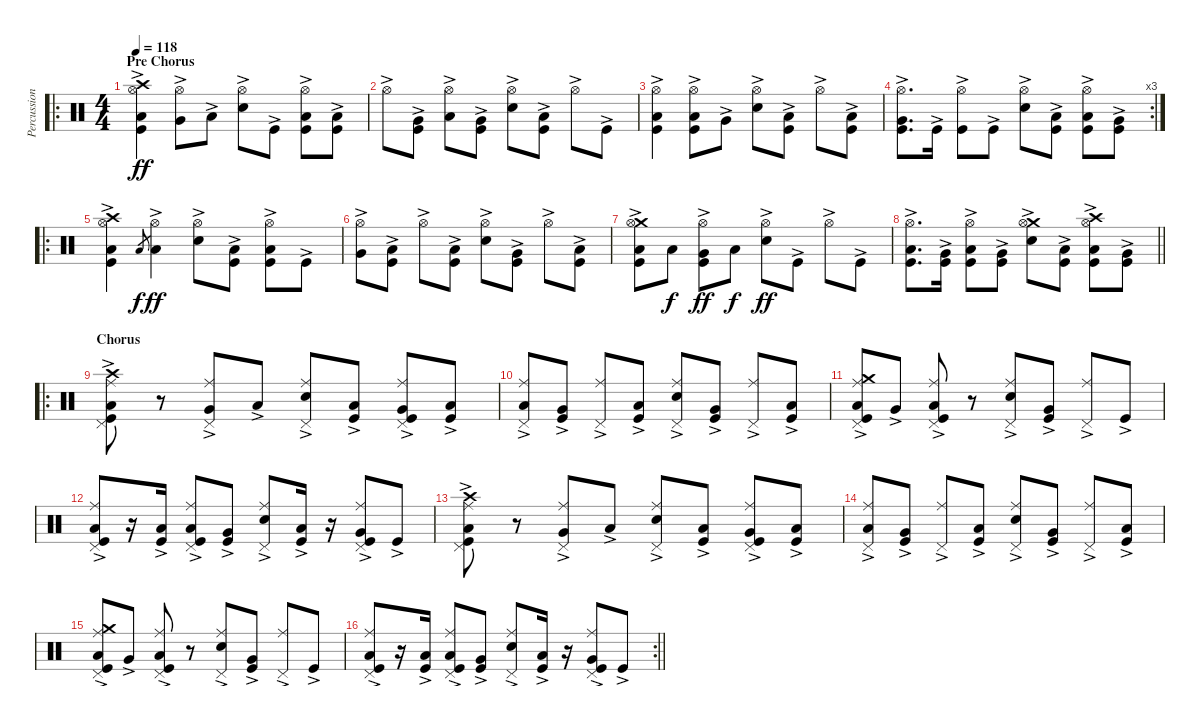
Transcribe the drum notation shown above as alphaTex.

\track ("Percussion" "Percussion") {instrument percussion}
\staff {score}
\articulation defaults
\ro
\ts (4 4)
\section ("" "Pre Chorus")
\tempo 118
\clef neutral
\ks c
("Crash high (hit)"{ac} "Hi-Hat (open)"{ac} "Low Floor Tom (hit)"{ac} "Kick (hit)"{ac}).4{dy ff} ("Hi-Hat (open)"{ac} "Very Low Tom (hit)"{ac}).8 "Low Floor Tom (hit)"{ac}.8 ("Hi-Hat (open)"{ac} "Electric Snare (hit)"{ac}).8 "Kick (hit)"{ac}.8 ("Hi-Hat (open)"{ac} "Low Floor Tom (hit)"{ac} "Kick (hit)"{ac}).8 ("Low Floor Tom (hit)"{ac} "Kick (hit)"{ac}).8 |
"Hi-Hat (open)"{ac}.8 ("Very Low Tom (hit)"{ac} "Kick (hit)"{ac}).8 ("Hi-Hat (open)"{ac} "Low Floor Tom (hit)"{ac}).8 ("Very Low Tom (hit)"{ac} "Kick (hit)"{ac}).8 ("Hi-Hat (open)"{ac} "Electric Snare (hit)"{ac}).8 ("Low Floor Tom (hit)"{ac} "Kick (hit)"{ac}).8 "Hi-Hat (open)"{ac}.8 "Kick (hit)"{ac}.8 |
("Hi-Hat (open)"{ac} "Low Floor Tom (hit)"{ac} "Kick (hit)"{ac}).4 ("Hi-Hat (open)"{ac} "Low Floor Tom (hit)"{ac} "Kick (hit)"{ac}).8 "Very Low Tom (hit)"{ac}.8 ("Hi-Hat (open)"{ac} "Electric Snare (hit)"{ac}).8 ("Low Floor Tom (hit)"{ac} "Kick (hit)"{ac}).8 "Hi-Hat (open)"{ac}.8 ("Low Floor Tom (hit)"{ac} "Kick (hit)"{ac}).8 |
\rc 3
("Hi-Hat (open)"{ac} "Very Low Tom (hit)" "Kick (hit)"{ac}).8{d} "Kick (hit)"{ac}.16 ("Hi-Hat (open)"{ac} "Kick (hit)"{ac}).8 "Kick (hit)"{ac}.8 ("Hi-Hat (open)"{ac} "Electric Snare (hit)"{ac}).8 ("Low Floor Tom (hit)"{ac} "Kick (hit)"{ac}).8 ("Hi-Hat (open)"{ac} "Low Floor Tom (hit)"{ac} "Kick (hit)"{ac}).8 ("Very Low Tom (hit)"{ac} "Kick (hit)"{ac}).8 |
\ro
("Crash high (hit)"{ac} "Hi-Hat (open)"{ac} "Low Floor Tom (hit)" "Kick (hit)"{ac}).4 "Low Floor Tom (hit)".8{gr dy f} ("Hi-Hat (open)"{ac} "Low Floor Tom (hit)").4{dy ff} ("Hi-Hat (open)"{ac} "Electric Snare (hit)"{ac}).8 ("Low Floor Tom (hit)" "Kick (hit)"{ac}).8 ("Hi-Hat (open)"{ac} "Low Floor Tom (hit)" "Kick (hit)"{ac}).8 "Kick (hit)"{ac}.8 |
("Hi-Hat (open)"{ac} "Very Low Tom (hit)").8 ("Low Floor Tom (hit)" "Kick (hit)"{ac}).8 "Hi-Hat (open)"{ac}.8 ("Low Floor Tom (hit)" "Kick (hit)"{ac}).8 ("Hi-Hat (open)"{ac} "Electric Snare (hit)"{ac}).8 ("Very Low Tom (hit)" "Kick (hit)"{ac}).8 "Hi-Hat (open)"{ac}.8 ("Low Floor Tom (hit)" "Kick (hit)"{ac}).8 |
("Crash medium (hit)"{ac} "Hi-Hat (open)"{ac} "Low Floor Tom (hit)" "Kick (hit)"{ac}).8 "Low Floor Tom (hit)".8{dy f} ("Hi-Hat (open)"{ac} "Very Low Tom (hit)" "Kick (hit)"{ac}).8{dy ff} "Low Floor Tom (hit)".8{dy f} ("Hi-Hat (open)"{ac} "Electric Snare (hit)"{ac}).8{dy ff} "Kick (hit)"{ac}.8 "Hi-Hat (open)"{ac}.8 "Kick (hit)"{ac}.8 |
\barLineRight lightlight
("Hi-Hat (open)"{ac} "Low Floor Tom (hit)" "Kick (hit)"{ac}).8{d} ("Very Low Tom (hit)" "Kick (hit)"{ac}).16 ("Hi-Hat (open)"{ac} "Low Floor Tom (hit)" "Kick (hit)"{ac}).8 ("Very Low Tom (hit)" "Kick (hit)"{ac}).8 ("Crash medium (hit)"{ac} "Hi-Hat (open)"{ac} "Electric Snare (hit)"{ac}).8 ("Low Floor Tom (hit)" "Kick (hit)"{ac}).8 ("Crash high (hit)"{ac} "Hi-Hat (open)"{ac} "Low Floor Tom (hit)" "Kick (hit)"{ac}).8 ("Very Low Tom (hit)" "Kick (hit)"{ac}).8 |
\ro
\section ("" "Chorus")
("Low Floor Tom (hit)"{ac} "Crash high (hit)"{ac} "Ride (middle)"{ac} "Pedal Hi-Hat (hit)"{ac} "Kick (hit)"{ac}).8 r.8 ("Ride (middle)"{ac} "Pedal Hi-Hat (hit)"{ac} "Very Low Tom (hit)"{ac}).8 "Low Floor Tom (hit)"{ac}.8 ("Pedal Hi-Hat (hit)"{ac} "Ride (middle)"{ac} "Electric Snare (hit)"{ac}).8 ("Low Floor Tom (hit)"{ac} "Kick (hit)"{ac}).8 ("Very Low Tom (hit)"{ac} "Ride (middle)"{ac} "Pedal Hi-Hat (hit)"{ac} "Kick (hit)"{ac}).8 ("Low Floor Tom (hit)"{ac} "Kick (hit)"{ac}).8 |
("Ride (middle)"{ac} "Pedal Hi-Hat (hit)"{ac} "Low Floor Tom (hit)"{ac}).8 ("Very Low Tom (hit)"{ac} "Kick (hit)"{ac}).8 ("Ride (middle)"{ac} "Pedal Hi-Hat (hit)"{ac}).8 ("Low Floor Tom (hit)"{ac} "Kick (hit)"{ac}).8 ("Pedal Hi-Hat (hit)"{ac} "Ride (middle)"{ac} "Electric Snare (hit)"{ac}).8 ("Very Low Tom (hit)"{ac} "Kick (hit)"{ac}).8 ("Ride (middle)"{ac} "Pedal Hi-Hat (hit)"{ac}).8 ("Low Floor Tom (hit)"{ac} "Kick (hit)"{ac}).8 |
("Low Floor Tom (hit)"{ac} "Crash medium (hit)"{ac} "Ride (middle)"{ac} "Pedal Hi-Hat (hit)"{ac} "Kick (hit)"{ac}).8 "Very Low Tom (hit)"{ac}.8 ("Low Floor Tom (hit)"{ac} "Ride (middle)"{ac} "Pedal Hi-Hat (hit)"{ac} "Kick (hit)"{ac}).8 r.8 ("Pedal Hi-Hat (hit)"{ac} "Ride (middle)"{ac} "Electric Snare (hit)"{ac}).8 ("Very Low Tom (hit)"{ac} "Kick (hit)"{ac}).8 ("Ride (middle)"{ac} "Pedal Hi-Hat (hit)"{ac}).8 "Kick (hit)"{ac}.8 |
("Low Floor Tom (hit)"{ac} "Ride (middle)"{ac} "Pedal Hi-Hat (hit)"{ac} "Kick (hit)"{ac}).8 r.16 ("Low Floor Tom (hit)"{ac} "Kick (hit)"{ac}).16 ("Low Floor Tom (hit)"{ac} "Ride (middle)"{ac} "Pedal Hi-Hat (hit)"{ac} "Kick (hit)"{ac}).8 ("Very Low Tom (hit)"{ac} "Kick (hit)"{ac}).8 ("Pedal Hi-Hat (hit)"{ac} "Ride (middle)"{ac} "Electric Snare (hit)"{ac}).8 ("Low Floor Tom (hit)"{ac} "Kick (hit)"{ac}).16 r.16 ("Very Low Tom (hit)"{ac} "Ride (middle)"{ac} "Pedal Hi-Hat (hit)"{ac} "Kick (hit)"{ac}).8 "Kick (hit)"{ac}.8 |
("Low Floor Tom (hit)"{ac} "Crash high (hit)"{ac} "Ride (middle)"{ac} "Pedal Hi-Hat (hit)"{ac} "Kick (hit)"{ac}).8 r.8 ("Ride (middle)"{ac} "Pedal Hi-Hat (hit)"{ac} "Very Low Tom (hit)"{ac}).8 "Low Floor Tom (hit)"{ac}.8 ("Pedal Hi-Hat (hit)"{ac} "Ride (middle)"{ac} "Electric Snare (hit)"{ac}).8 ("Low Floor Tom (hit)"{ac} "Kick (hit)"{ac}).8 ("Very Low Tom (hit)"{ac} "Ride (middle)"{ac} "Pedal Hi-Hat (hit)"{ac} "Kick (hit)"{ac}).8 ("Low Floor Tom (hit)"{ac} "Kick (hit)"{ac}).8 |
("Ride (middle)"{ac} "Pedal Hi-Hat (hit)"{ac} "Low Floor Tom (hit)"{ac}).8 ("Very Low Tom (hit)"{ac} "Kick (hit)"{ac}).8 ("Ride (middle)"{ac} "Pedal Hi-Hat (hit)"{ac}).8 ("Low Floor Tom (hit)"{ac} "Kick (hit)"{ac}).8 ("Pedal Hi-Hat (hit)"{ac} "Ride (middle)"{ac} "Electric Snare (hit)"{ac}).8 ("Very Low Tom (hit)"{ac} "Kick (hit)"{ac}).8 ("Ride (middle)"{ac} "Pedal Hi-Hat (hit)"{ac}).8 ("Low Floor Tom (hit)"{ac} "Kick (hit)"{ac}).8 |
("Low Floor Tom (hit)"{ac} "Crash medium (hit)"{ac} "Ride (middle)"{ac} "Pedal Hi-Hat (hit)"{ac} "Kick (hit)"{ac}).8 "Very Low Tom (hit)"{ac}.8 ("Low Floor Tom (hit)"{ac} "Ride (middle)"{ac} "Pedal Hi-Hat (hit)"{ac} "Kick (hit)"{ac}).8 r.8 ("Pedal Hi-Hat (hit)"{ac} "Ride (middle)"{ac} "Electric Snare (hit)"{ac}).8 ("Very Low Tom (hit)"{ac} "Kick (hit)"{ac}).8 ("Ride (middle)"{ac} "Pedal Hi-Hat (hit)"{ac}).8 "Kick (hit)"{ac}.8 |
\rc 2
\barLineRight lightlight
("Low Floor Tom (hit)"{ac} "Ride (middle)"{ac} "Pedal Hi-Hat (hit)"{ac} "Kick (hit)"{ac}).8 r.16 ("Low Floor Tom (hit)"{ac} "Kick (hit)"{ac}).16 ("Low Floor Tom (hit)"{ac} "Ride (middle)"{ac} "Pedal Hi-Hat (hit)"{ac} "Kick (hit)"{ac}).8 ("Very Low Tom (hit)"{ac} "Kick (hit)"{ac}).8 ("Pedal Hi-Hat (hit)"{ac} "Ride (middle)"{ac} "Electric Snare (hit)"{ac}).8 ("Low Floor Tom (hit)"{ac} "Kick (hit)"{ac}).16 r.16 ("Very Low Tom (hit)"{ac} "Ride (middle)"{ac} "Pedal Hi-Hat (hit)"{ac} "Kick (hit)"{ac}).8 "Kick (hit)"{ac}.8
